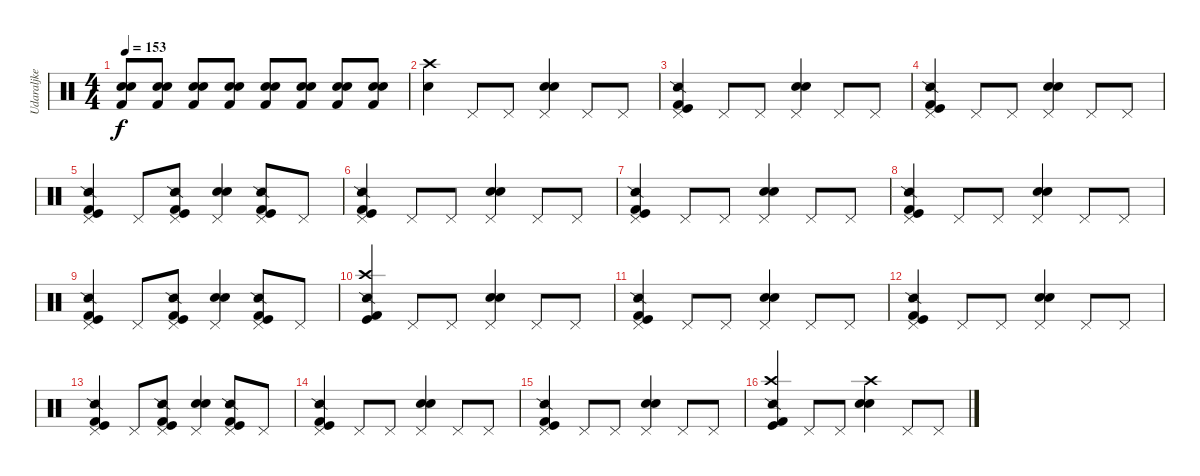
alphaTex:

\track ("Udaraljke" "Udaraljke") {instrument percussion}
\staff {score}
\articulation defaults
\ts (4 4)
\tempo 153
\clef neutral
\ks c
("Electric Snare (hit)" "Snare (hit) 2" "Kick (hit) 2").8{dy f} ("Electric Snare (hit)" "Snare (hit) 2" "Kick (hit) 2").8 ("Electric Snare (hit)" "Snare (hit) 2" "Kick (hit) 2").8 ("Electric Snare (hit)" "Snare (hit) 2" "Kick (hit) 2").8 ("Electric Snare (hit)" "Snare (hit) 2" "Kick (hit) 2").8 ("Electric Snare (hit)" "Snare (hit) 2" "Kick (hit) 2").8 ("Electric Snare (hit)" "Snare (hit) 2" "Kick (hit) 2").8 ("Electric Snare (hit)" "Snare (hit) 2" "Kick (hit) 2").8 |
("Crash high (hit)" "Snare (hit) 2").4 "Pedal Hi-Hat (hit)".8 "Pedal Hi-Hat (hit)".8 ("Pedal Hi-Hat (hit)" "Electric Snare (hit)" "Snare (hit) 2").4 "Pedal Hi-Hat (hit)".8 "Pedal Hi-Hat (hit)".8 |
("Pedal Hi-Hat (hit)" "Kick (hit) 2" "Kick (hit)" "Snare (side stick) 2").4 "Pedal Hi-Hat (hit)".8 "Pedal Hi-Hat (hit)".8 ("Pedal Hi-Hat (hit)" "Electric Snare (hit)" "Snare (hit) 2").4 "Pedal Hi-Hat (hit)".8 "Pedal Hi-Hat (hit)".8 |
("Pedal Hi-Hat (hit)" "Kick (hit) 2" "Kick (hit)" "Snare (side stick) 2").4 "Pedal Hi-Hat (hit)".8 "Pedal Hi-Hat (hit)".8 ("Pedal Hi-Hat (hit)" "Electric Snare (hit)" "Snare (hit) 2").4 "Pedal Hi-Hat (hit)".8 "Pedal Hi-Hat (hit)".8 |
("Pedal Hi-Hat (hit)" "Kick (hit) 2" "Kick (hit)" "Snare (side stick) 2").4 "Pedal Hi-Hat (hit)".8 ("Pedal Hi-Hat (hit)" "Kick (hit) 2" "Kick (hit)" "Snare (side stick) 2").8 ("Pedal Hi-Hat (hit)" "Electric Snare (hit)" "Snare (hit) 2").4 ("Pedal Hi-Hat (hit)" "Kick (hit) 2" "Kick (hit)" "Snare (side stick) 2").8 "Pedal Hi-Hat (hit)".8 |
("Pedal Hi-Hat (hit)" "Kick (hit) 2" "Kick (hit)" "Snare (side stick) 2").4 "Pedal Hi-Hat (hit)".8 "Pedal Hi-Hat (hit)".8 ("Pedal Hi-Hat (hit)" "Electric Snare (hit)" "Snare (hit) 2").4 "Pedal Hi-Hat (hit)".8 "Pedal Hi-Hat (hit)".8 |
("Pedal Hi-Hat (hit)" "Kick (hit) 2" "Kick (hit)" "Snare (side stick) 2").4 "Pedal Hi-Hat (hit)".8 "Pedal Hi-Hat (hit)".8 ("Pedal Hi-Hat (hit)" "Electric Snare (hit)" "Snare (hit) 2").4 "Pedal Hi-Hat (hit)".8 "Pedal Hi-Hat (hit)".8 |
("Pedal Hi-Hat (hit)" "Kick (hit) 2" "Kick (hit)" "Snare (side stick) 2").4 "Pedal Hi-Hat (hit)".8 "Pedal Hi-Hat (hit)".8 ("Pedal Hi-Hat (hit)" "Electric Snare (hit)" "Snare (hit) 2").4 "Pedal Hi-Hat (hit)".8 "Pedal Hi-Hat (hit)".8 |
("Pedal Hi-Hat (hit)" "Kick (hit) 2" "Kick (hit)" "Snare (side stick) 2").4 "Pedal Hi-Hat (hit)".8 ("Pedal Hi-Hat (hit)" "Kick (hit) 2" "Kick (hit)" "Snare (side stick) 2").8 ("Pedal Hi-Hat (hit)" "Electric Snare (hit)" "Snare (hit) 2").4 ("Pedal Hi-Hat (hit)" "Kick (hit) 2" "Kick (hit)" "Snare (side stick) 2").8 "Pedal Hi-Hat (hit)".8 |
("Crash high (hit)" "Kick (hit) 2" "Kick (hit)" "Snare (side stick) 2").4 "Pedal Hi-Hat (hit)".8 "Pedal Hi-Hat (hit)".8 ("Pedal Hi-Hat (hit)" "Electric Snare (hit)" "Snare (hit) 2").4 "Pedal Hi-Hat (hit)".8 "Pedal Hi-Hat (hit)".8 |
("Pedal Hi-Hat (hit)" "Kick (hit) 2" "Kick (hit)" "Snare (side stick) 2").4 "Pedal Hi-Hat (hit)".8 "Pedal Hi-Hat (hit)".8 ("Pedal Hi-Hat (hit)" "Electric Snare (hit)" "Snare (hit) 2").4 "Pedal Hi-Hat (hit)".8 "Pedal Hi-Hat (hit)".8 |
("Pedal Hi-Hat (hit)" "Kick (hit) 2" "Kick (hit)" "Snare (side stick) 2").4 "Pedal Hi-Hat (hit)".8 "Pedal Hi-Hat (hit)".8 ("Pedal Hi-Hat (hit)" "Electric Snare (hit)" "Snare (hit) 2").4 "Pedal Hi-Hat (hit)".8 "Pedal Hi-Hat (hit)".8 |
("Pedal Hi-Hat (hit)" "Kick (hit) 2" "Kick (hit)" "Snare (side stick) 2").4 "Pedal Hi-Hat (hit)".8 ("Pedal Hi-Hat (hit)" "Kick (hit) 2" "Kick (hit)" "Snare (side stick) 2").8 ("Pedal Hi-Hat (hit)" "Electric Snare (hit)" "Snare (hit) 2").4 ("Pedal Hi-Hat (hit)" "Kick (hit) 2" "Kick (hit)" "Snare (side stick) 2").8 "Pedal Hi-Hat (hit)".8 |
("Pedal Hi-Hat (hit)" "Kick (hit) 2" "Kick (hit)" "Snare (side stick) 2").4 "Pedal Hi-Hat (hit)".8 "Pedal Hi-Hat (hit)".8 ("Pedal Hi-Hat (hit)" "Electric Snare (hit)" "Snare (hit) 2").4 "Pedal Hi-Hat (hit)".8 "Pedal Hi-Hat (hit)".8 |
("Pedal Hi-Hat (hit)" "Kick (hit) 2" "Kick (hit)" "Snare (side stick) 2").4 "Pedal Hi-Hat (hit)".8 "Pedal Hi-Hat (hit)".8 ("Pedal Hi-Hat (hit)" "Electric Snare (hit)" "Snare (hit) 2").4 "Pedal Hi-Hat (hit)".8 "Pedal Hi-Hat (hit)".8 |
("Crash high (hit)" "Kick (hit) 2" "Kick (hit)" "Snare (side stick) 2").4 "Pedal Hi-Hat (hit)".8 "Pedal Hi-Hat (hit)".8 ("Crash high (hit)" "Electric Snare (hit)" "Snare (hit) 2").4 "Pedal Hi-Hat (hit)".8 "Pedal Hi-Hat (hit)".8
